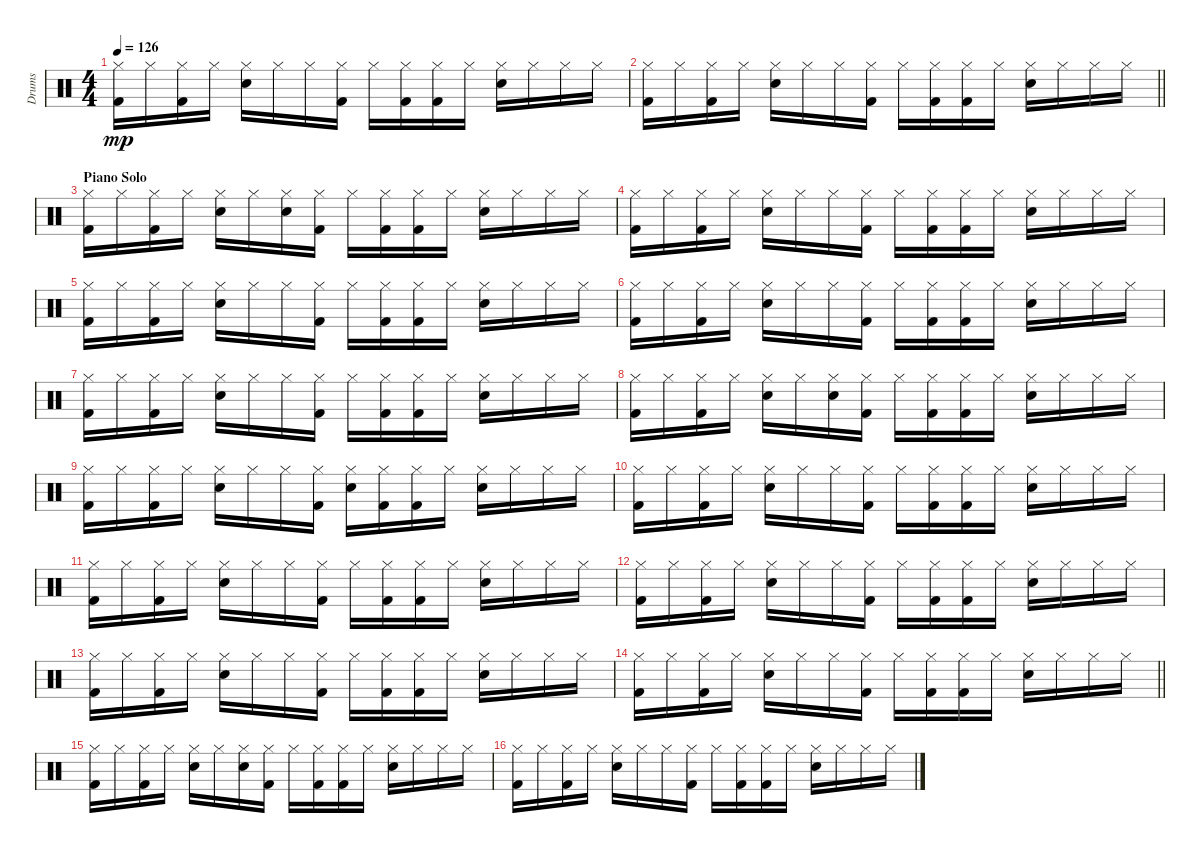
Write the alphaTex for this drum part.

\track ("Drums" "Drums") {instrument percussion}
\staff {score}
\articulation defaults
\ts (4 4)
\tempo 126
\clef neutral
\ks c
("Hi-Hat (closed)" "Kick (hit) 2").16{dy mp} "Hi-Hat (closed)".16 ("Hi-Hat (closed)" "Kick (hit) 2").16 "Hi-Hat (closed)".16 ("Hi-Hat (closed)" "Snare (hit) 2").16 "Hi-Hat (closed)".16 "Hi-Hat (closed)".16 ("Hi-Hat (closed)" "Kick (hit) 2").16 "Hi-Hat (closed)".16 ("Hi-Hat (closed)" "Kick (hit) 2").16 ("Hi-Hat (closed)" "Kick (hit) 2").16 "Hi-Hat (closed)".16 ("Hi-Hat (closed)" "Snare (hit) 2").16 "Hi-Hat (closed)".16 "Hi-Hat (closed)".16 "Hi-Hat (closed)".16 |
\barLineRight lightlight
("Hi-Hat (closed)" "Kick (hit) 2").16 "Hi-Hat (closed)".16 ("Hi-Hat (closed)" "Kick (hit) 2").16 "Hi-Hat (closed)".16 ("Hi-Hat (closed)" "Snare (hit) 2").16 "Hi-Hat (closed)".16 "Hi-Hat (closed)".16 ("Hi-Hat (closed)" "Kick (hit) 2").16 "Hi-Hat (closed)".16 ("Hi-Hat (closed)" "Kick (hit) 2").16 ("Hi-Hat (closed)" "Kick (hit) 2").16 "Hi-Hat (closed)".16 ("Hi-Hat (closed)" "Snare (hit) 2").16 "Hi-Hat (closed)".16 "Hi-Hat (closed)".16 "Hi-Hat (closed)".16 |
\section ("" "Piano Solo")
("Hi-Hat (closed)" "Kick (hit) 2").16 "Hi-Hat (closed)".16 ("Hi-Hat (closed)" "Kick (hit) 2").16 "Hi-Hat (closed)".16 ("Hi-Hat (closed)" "Snare (hit) 2").16 "Hi-Hat (closed)".16 ("Hi-Hat (closed)" "Snare (hit) 2").16 ("Hi-Hat (closed)" "Kick (hit) 2").16 "Hi-Hat (closed)".16 ("Hi-Hat (closed)" "Kick (hit) 2").16 ("Hi-Hat (closed)" "Kick (hit) 2").16 "Hi-Hat (closed)".16 ("Hi-Hat (closed)" "Snare (hit) 2").16 "Hi-Hat (closed)".16 "Hi-Hat (closed)".16 "Hi-Hat (closed)".16 |
("Hi-Hat (closed)" "Kick (hit) 2").16 "Hi-Hat (closed)".16 ("Hi-Hat (closed)" "Kick (hit) 2").16 "Hi-Hat (closed)".16 ("Hi-Hat (closed)" "Snare (hit) 2").16 "Hi-Hat (closed)".16 "Hi-Hat (closed)".16 ("Hi-Hat (closed)" "Kick (hit) 2").16 "Hi-Hat (closed)".16 ("Hi-Hat (closed)" "Kick (hit) 2").16 ("Hi-Hat (closed)" "Kick (hit) 2").16 "Hi-Hat (closed)".16 ("Hi-Hat (closed)" "Snare (hit) 2").16 "Hi-Hat (closed)".16 "Hi-Hat (closed)".16 "Hi-Hat (closed)".16 |
("Hi-Hat (closed)" "Kick (hit) 2").16 "Hi-Hat (closed)".16 ("Hi-Hat (closed)" "Kick (hit) 2").16 "Hi-Hat (closed)".16 ("Hi-Hat (closed)" "Snare (hit) 2").16 "Hi-Hat (closed)".16 "Hi-Hat (closed)".16 ("Hi-Hat (closed)" "Kick (hit) 2").16 "Hi-Hat (closed)".16 ("Hi-Hat (closed)" "Kick (hit) 2").16 ("Hi-Hat (closed)" "Kick (hit) 2").16 "Hi-Hat (closed)".16 ("Hi-Hat (closed)" "Snare (hit) 2").16 "Hi-Hat (closed)".16 "Hi-Hat (closed)".16 "Hi-Hat (closed)".16 |
("Hi-Hat (closed)" "Kick (hit) 2").16 "Hi-Hat (closed)".16 ("Hi-Hat (closed)" "Kick (hit) 2").16 "Hi-Hat (closed)".16 ("Hi-Hat (closed)" "Snare (hit) 2").16 "Hi-Hat (closed)".16 "Hi-Hat (closed)".16 ("Hi-Hat (closed)" "Kick (hit) 2").16 "Hi-Hat (closed)".16 ("Hi-Hat (closed)" "Kick (hit) 2").16 ("Hi-Hat (closed)" "Kick (hit) 2").16 "Hi-Hat (closed)".16 ("Hi-Hat (closed)" "Snare (hit) 2").16 "Hi-Hat (closed)".16 "Hi-Hat (closed)".16 "Hi-Hat (closed)".16 |
("Hi-Hat (closed)" "Kick (hit) 2").16 "Hi-Hat (closed)".16 ("Hi-Hat (closed)" "Kick (hit) 2").16 "Hi-Hat (closed)".16 ("Hi-Hat (closed)" "Snare (hit) 2").16 "Hi-Hat (closed)".16 "Hi-Hat (closed)".16 ("Hi-Hat (closed)" "Kick (hit) 2").16 "Hi-Hat (closed)".16 ("Hi-Hat (closed)" "Kick (hit) 2").16 ("Hi-Hat (closed)" "Kick (hit) 2").16 "Hi-Hat (closed)".16 ("Hi-Hat (closed)" "Snare (hit) 2").16 "Hi-Hat (closed)".16 "Hi-Hat (closed)".16 "Hi-Hat (closed)".16 |
("Hi-Hat (closed)" "Kick (hit) 2").16 "Hi-Hat (closed)".16 ("Hi-Hat (closed)" "Kick (hit) 2").16 "Hi-Hat (closed)".16 ("Hi-Hat (closed)" "Snare (hit) 2").16 "Hi-Hat (closed)".16 ("Hi-Hat (closed)" "Snare (hit) 2").16 ("Hi-Hat (closed)" "Kick (hit) 2").16 "Hi-Hat (closed)".16 ("Hi-Hat (closed)" "Kick (hit) 2").16 ("Hi-Hat (closed)" "Kick (hit) 2").16 "Hi-Hat (closed)".16 ("Hi-Hat (closed)" "Snare (hit) 2").16 "Hi-Hat (closed)".16 "Hi-Hat (closed)".16 "Hi-Hat (closed)".16 |
("Hi-Hat (closed)" "Kick (hit) 2").16 "Hi-Hat (closed)".16 ("Hi-Hat (closed)" "Kick (hit) 2").16 "Hi-Hat (closed)".16 ("Hi-Hat (closed)" "Snare (hit) 2").16 "Hi-Hat (closed)".16 "Hi-Hat (closed)".16 ("Hi-Hat (closed)" "Kick (hit) 2").16 ("Hi-Hat (closed)" "Snare (hit) 2").16 ("Hi-Hat (closed)" "Kick (hit) 2").16 ("Hi-Hat (closed)" "Kick (hit) 2").16 "Hi-Hat (closed)".16 ("Hi-Hat (closed)" "Snare (hit) 2").16 "Hi-Hat (closed)".16 "Hi-Hat (closed)".16 "Hi-Hat (closed)".16 |
("Hi-Hat (closed)" "Kick (hit) 2").16 "Hi-Hat (closed)".16 ("Hi-Hat (closed)" "Kick (hit) 2").16 "Hi-Hat (closed)".16 ("Hi-Hat (closed)" "Snare (hit) 2").16 "Hi-Hat (closed)".16 "Hi-Hat (closed)".16 ("Hi-Hat (closed)" "Kick (hit) 2").16 "Hi-Hat (closed)".16 ("Hi-Hat (closed)" "Kick (hit) 2").16 ("Hi-Hat (closed)" "Kick (hit) 2").16 "Hi-Hat (closed)".16 ("Hi-Hat (closed)" "Snare (hit) 2").16 "Hi-Hat (closed)".16 "Hi-Hat (closed)".16 "Hi-Hat (closed)".16 |
("Hi-Hat (closed)" "Kick (hit) 2").16 "Hi-Hat (closed)".16 ("Hi-Hat (closed)" "Kick (hit) 2").16 "Hi-Hat (closed)".16 ("Hi-Hat (closed)" "Snare (hit) 2").16 "Hi-Hat (closed)".16 "Hi-Hat (closed)".16 ("Hi-Hat (closed)" "Kick (hit) 2").16 "Hi-Hat (closed)".16 ("Hi-Hat (closed)" "Kick (hit) 2").16 ("Hi-Hat (closed)" "Kick (hit) 2").16 "Hi-Hat (closed)".16 ("Hi-Hat (closed)" "Snare (hit) 2").16 "Hi-Hat (closed)".16 "Hi-Hat (closed)".16 "Hi-Hat (closed)".16 |
("Hi-Hat (closed)" "Kick (hit) 2").16 "Hi-Hat (closed)".16 ("Hi-Hat (closed)" "Kick (hit) 2").16 "Hi-Hat (closed)".16 ("Hi-Hat (closed)" "Snare (hit) 2").16 "Hi-Hat (closed)".16 "Hi-Hat (closed)".16 ("Hi-Hat (closed)" "Kick (hit) 2").16 "Hi-Hat (closed)".16 ("Hi-Hat (closed)" "Kick (hit) 2").16 ("Hi-Hat (closed)" "Kick (hit) 2").16 "Hi-Hat (closed)".16 ("Hi-Hat (closed)" "Snare (hit) 2").16 "Hi-Hat (closed)".16 "Hi-Hat (closed)".16 "Hi-Hat (closed)".16 |
("Hi-Hat (closed)" "Kick (hit) 2").16 "Hi-Hat (closed)".16 ("Hi-Hat (closed)" "Kick (hit) 2").16 "Hi-Hat (closed)".16 ("Hi-Hat (closed)" "Snare (hit) 2").16 "Hi-Hat (closed)".16 "Hi-Hat (closed)".16 ("Hi-Hat (closed)" "Kick (hit) 2").16 "Hi-Hat (closed)".16 ("Hi-Hat (closed)" "Kick (hit) 2").16 ("Hi-Hat (closed)" "Kick (hit) 2").16 "Hi-Hat (closed)".16 ("Hi-Hat (closed)" "Snare (hit) 2").16 "Hi-Hat (closed)".16 "Hi-Hat (closed)".16 "Hi-Hat (closed)".16 |
\barLineRight lightlight
("Hi-Hat (closed)" "Kick (hit) 2").16 "Hi-Hat (closed)".16 ("Hi-Hat (closed)" "Kick (hit) 2").16 "Hi-Hat (closed)".16 ("Hi-Hat (closed)" "Snare (hit) 2").16 "Hi-Hat (closed)".16 "Hi-Hat (closed)".16 ("Hi-Hat (closed)" "Kick (hit) 2").16 "Hi-Hat (closed)".16 ("Hi-Hat (closed)" "Kick (hit) 2").16 ("Hi-Hat (closed)" "Kick (hit) 2").16 "Hi-Hat (closed)".16 ("Hi-Hat (closed)" "Snare (hit) 2").16 "Hi-Hat (closed)".16 "Hi-Hat (closed)".16 "Hi-Hat (closed)".16 |
("Hi-Hat (closed)" "Kick (hit) 2").16 "Hi-Hat (closed)".16 ("Hi-Hat (closed)" "Kick (hit) 2").16 "Hi-Hat (closed)".16 ("Hi-Hat (closed)" "Snare (hit) 2").16 "Hi-Hat (closed)".16 ("Hi-Hat (closed)" "Snare (hit) 2").16 ("Hi-Hat (closed)" "Kick (hit) 2").16 "Hi-Hat (closed)".16 ("Hi-Hat (closed)" "Kick (hit) 2").16 ("Hi-Hat (closed)" "Kick (hit) 2").16 "Hi-Hat (closed)".16 ("Hi-Hat (closed)" "Snare (hit) 2").16 "Hi-Hat (closed)".16 "Hi-Hat (closed)".16 "Hi-Hat (closed)".16 |
("Hi-Hat (closed)" "Kick (hit) 2").16 "Hi-Hat (closed)".16 ("Hi-Hat (closed)" "Kick (hit) 2").16 "Hi-Hat (closed)".16 ("Hi-Hat (closed)" "Snare (hit) 2").16 "Hi-Hat (closed)".16 "Hi-Hat (closed)".16 ("Hi-Hat (closed)" "Kick (hit) 2").16 "Hi-Hat (closed)".16 ("Hi-Hat (closed)" "Kick (hit) 2").16 ("Hi-Hat (closed)" "Kick (hit) 2").16 "Hi-Hat (closed)".16 ("Hi-Hat (closed)" "Snare (hit) 2").16 "Hi-Hat (closed)".16 "Hi-Hat (closed)".16 "Hi-Hat (closed)".16
